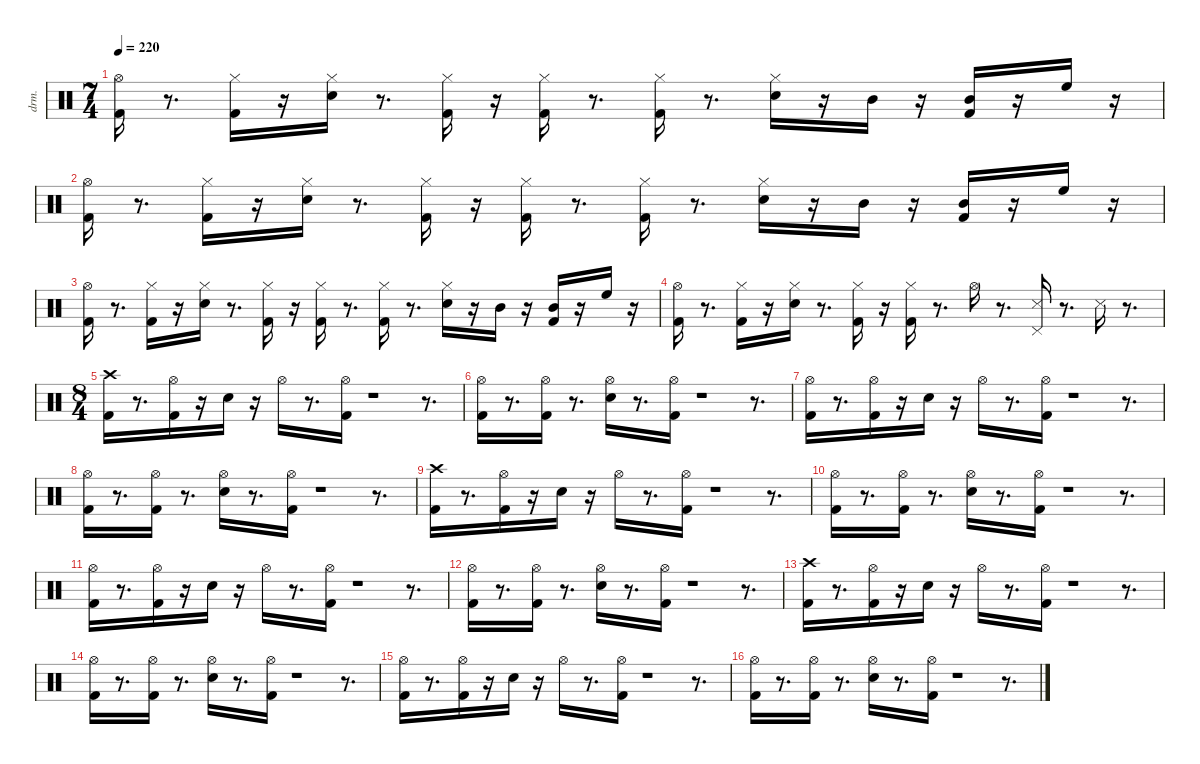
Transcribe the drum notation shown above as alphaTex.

\defaultSystemsLayout 4
\hideDynamics
\bracketExtendMode nobrackets
\otherSystemsTrackNameOrientation horizontal
\track ("EZdrummer 3" "drm.") {instrument percussion}
\staff {score}
\articulation defaults
\ts (7 4)
\tempo 220
\clef neutral
\ks c
("Kick (hit) 2" "Hi-Hat (open)"{acc #}).16{dy fff beam Down} r.8{d beam Down} ("Kick (hit) 2" "Hi-Hat (closed)"{acc #}).16{dy f beam Down} r.16{beam Down} ("Snare (hit) 2" "Hi-Hat (closed)"{acc #}).16{dy ff beam Down} r.8{d beam Down} ("Kick (hit) 2" "Hi-Hat (closed)"{acc #}).16{dy f beam Down} r.16{beam Down} ("Kick (hit) 2" "Hi-Hat (closed)"{acc #}).16{dy ff beam Down} r.8{d beam Down} ("Kick (hit) 2" "Hi-Hat (closed)"{acc #}).16{dy f beam Down} r.8{d beam Down} ("Snare (hit) 2" "Hi-Hat (closed)"{acc #}).16{dy fff beam Down} r.16{beam Down} "Mid Tom (hit)".16{dy f beam Down} r.16{beam Down} ("Kick (hit) 2" "Mid Tom (hit)").16{beam Up} r.16{beam Up} "High Floor Tom (hit)".16{beam Down} r.16{beam Down} |
("Kick (hit) 2" "Hi-Hat (open)"{acc #}).16{dy fff beam Down} r.8{d beam Down} ("Kick (hit) 2" "Hi-Hat (closed)"{acc #}).16{dy f beam Down} r.16{beam Down} ("Snare (hit) 2" "Hi-Hat (closed)"{acc #}).16{dy ff beam Down} r.8{d beam Down} ("Kick (hit) 2" "Hi-Hat (closed)"{acc #}).16{dy f beam Down} r.16{beam Down} ("Kick (hit) 2" "Hi-Hat (closed)"{acc #}).16{dy ff beam Down} r.8{d beam Down} ("Kick (hit) 2" "Hi-Hat (closed)"{acc #}).16{dy f beam Down} r.8{d beam Down} ("Snare (hit) 2" "Hi-Hat (closed)"{acc #}).16{dy fff beam Down} r.16{beam Down} "Mid Tom (hit)".16{dy f beam Down} r.16{beam Down} ("Kick (hit) 2" "Mid Tom (hit)").16{beam Up} r.16{beam Up} "High Floor Tom (hit)".16{beam Down} r.16{beam Down} |
("Kick (hit) 2" "Hi-Hat (open)"{acc #}).16{dy fff beam Down} r.8{d beam Down} ("Kick (hit) 2" "Hi-Hat (closed)"{acc #}).16{dy f beam Down} r.16{beam Down} ("Snare (hit) 2" "Hi-Hat (closed)"{acc #}).16{dy ff beam Down} r.8{d beam Down} ("Kick (hit) 2" "Hi-Hat (closed)"{acc #}).16{dy f beam Down} r.16{beam Down} ("Kick (hit) 2" "Hi-Hat (closed)"{acc #}).16{dy ff beam Down} r.8{d beam Down} ("Kick (hit) 2" "Hi-Hat (closed)"{acc #}).16{dy f beam Down} r.8{d beam Down} ("Snare (hit) 2" "Hi-Hat (closed)"{acc #}).16{dy fff beam Down} r.16{beam Down} "Mid Tom (hit)".16{dy f beam Down} r.16{beam Down} ("Kick (hit) 2" "Mid Tom (hit)").16{beam Up} r.16{beam Up} "High Floor Tom (hit)".16{beam Down} r.16{beam Down} |
("Kick (hit) 2" "Hi-Hat (open)"{acc #}).16{dy fff beam Down} r.8{d beam Down} ("Kick (hit) 2" "Hi-Hat (closed)"{acc #}).16{dy f beam Down} r.16{beam Down} ("Snare (hit) 2" "Hi-Hat (closed)"{acc #}).16{beam Down} r.8{d beam Down} ("Kick (hit) 2" "Hi-Hat (closed)"{acc #}).16{beam Down} r.16{beam Down} ("Kick (hit) 2" "Hi-Hat (closed)"{acc #}).16{dy fff beam Down} r.8{d beam Down} "Hi-Hat (open)"{acc #}.16{beam Down} r.8{d beam Down} ("Snare (side stick) 3"{acc #} "Pedal Hi-Hat (hit)"{acc #}).16{beam Up} r.8{d beam Up} "Snare (side stick) 3"{acc #}.16{beam Down} r.8{d beam Down} |
\ts (8 4)
\beaming (8 4 4 4 4)
("Kick (hit) 2" "Crash high (hit)"{acc #}).16{beam Down} r.8{d beam Down} ("Kick (hit) 2" "Hi-Hat (open)"{acc #}).16{dy ff beam Down} r.16{beam Down} "Snare (hit) 2".16{beam Down} r.16{beam Down} "Hi-Hat (open)"{acc #}.16{beam Down} r.8{d beam Down} ("Kick (hit) 2" "Hi-Hat (open)"{acc #}).16{beam Down} r.1{beam Down} r.8{d beam Down} |
("Kick (hit) 2" "Hi-Hat (open)"{acc #}).16{beam Down} r.8{d beam Down} ("Kick (hit) 2" "Hi-Hat (open)"{acc #}).16{beam Down} r.8{d beam Down} ("Snare (hit) 2" "Hi-Hat (open)"{acc #}).16{beam Down} r.8{d beam Down} ("Kick (hit) 2" "Hi-Hat (open)"{acc #}).16{dy mf beam Down} r.1{beam Down} r.8{d beam Down} |
("Kick (hit) 2" "Hi-Hat (open)"{acc #}).16{dy fff beam Down} r.8{d beam Down} ("Kick (hit) 2" "Hi-Hat (open)"{acc #}).16{dy ff beam Down} r.16{beam Down} "Snare (hit) 2".16{beam Down} r.16{beam Down} "Hi-Hat (open)"{acc #}.16{beam Down} r.8{d beam Down} ("Kick (hit) 2" "Hi-Hat (open)"{acc #}).16{beam Down} r.1{beam Down} r.8{d beam Down} |
("Kick (hit) 2" "Hi-Hat (open)"{acc #}).16{beam Down} r.8{d beam Down} ("Kick (hit) 2" "Hi-Hat (open)"{acc #}).16{beam Down} r.8{d beam Down} ("Snare (hit) 2" "Hi-Hat (open)"{acc #}).16{beam Down} r.8{d beam Down} ("Kick (hit) 2" "Hi-Hat (open)"{acc #}).16{dy mf beam Down} r.1{beam Down} r.8{d beam Down} |
("Kick (hit) 2" "Crash high (hit)"{acc #}).16{dy fff beam Down} r.8{d beam Down} ("Kick (hit) 2" "Hi-Hat (open)"{acc #}).16{dy ff beam Down} r.16{beam Down} "Snare (hit) 2".16{beam Down} r.16{beam Down} "Hi-Hat (open)"{acc #}.16{beam Down} r.8{d beam Down} ("Kick (hit) 2" "Hi-Hat (open)"{acc #}).16{beam Down} r.1{beam Down} r.8{d beam Down} |
("Kick (hit) 2" "Hi-Hat (open)"{acc #}).16{beam Down} r.8{d beam Down} ("Kick (hit) 2" "Hi-Hat (open)"{acc #}).16{beam Down} r.8{d beam Down} ("Snare (hit) 2" "Hi-Hat (open)"{acc #}).16{beam Down} r.8{d beam Down} ("Kick (hit) 2" "Hi-Hat (open)"{acc #}).16{dy mf beam Down} r.1{beam Down} r.8{d beam Down} |
("Kick (hit) 2" "Hi-Hat (open)"{acc #}).16{dy fff beam Down} r.8{d beam Down} ("Kick (hit) 2" "Hi-Hat (open)"{acc #}).16{dy ff beam Down} r.16{beam Down} "Snare (hit) 2".16{beam Down} r.16{beam Down} "Hi-Hat (open)"{acc #}.16{beam Down} r.8{d beam Down} ("Kick (hit) 2" "Hi-Hat (open)"{acc #}).16{beam Down} r.1{beam Down} r.8{d beam Down} |
("Kick (hit) 2" "Hi-Hat (open)"{acc #}).16{beam Down} r.8{d beam Down} ("Kick (hit) 2" "Hi-Hat (open)"{acc #}).16{beam Down} r.8{d beam Down} ("Snare (hit) 2" "Hi-Hat (open)"{acc #}).16{beam Down} r.8{d beam Down} ("Kick (hit) 2" "Hi-Hat (open)"{acc #}).16{dy mf beam Down} r.1{beam Down} r.8{d beam Down} |
("Kick (hit) 2" "Crash high (hit)"{acc #}).16{dy fff beam Down} r.8{d beam Down} ("Kick (hit) 2" "Hi-Hat (open)"{acc #}).16{dy ff beam Down} r.16{beam Down} "Snare (hit) 2".16{beam Down} r.16{beam Down} "Hi-Hat (open)"{acc #}.16{beam Down} r.8{d beam Down} ("Kick (hit) 2" "Hi-Hat (open)"{acc #}).16{beam Down} r.1{beam Down} r.8{d beam Down} |
("Kick (hit) 2" "Hi-Hat (open)"{acc #}).16{beam Down} r.8{d beam Down} ("Kick (hit) 2" "Hi-Hat (open)"{acc #}).16{beam Down} r.8{d beam Down} ("Snare (hit) 2" "Hi-Hat (open)"{acc #}).16{beam Down} r.8{d beam Down} ("Kick (hit) 2" "Hi-Hat (open)"{acc #}).16{dy mf beam Down} r.1{beam Down} r.8{d beam Down} |
("Kick (hit) 2" "Hi-Hat (open)"{acc #}).16{dy fff beam Down} r.8{d beam Down} ("Kick (hit) 2" "Hi-Hat (open)"{acc #}).16{dy ff beam Down} r.16{beam Down} "Snare (hit) 2".16{beam Down} r.16{beam Down} "Hi-Hat (open)"{acc #}.16{beam Down} r.8{d beam Down} ("Kick (hit) 2" "Hi-Hat (open)"{acc #}).16{beam Down} r.1{beam Down} r.8{d beam Down} |
("Kick (hit) 2" "Hi-Hat (open)"{acc #}).16{beam Down} r.8{d beam Down} ("Kick (hit) 2" "Hi-Hat (open)"{acc #}).16{beam Down} r.8{d beam Down} ("Snare (hit) 2" "Hi-Hat (open)"{acc #}).16{beam Down} r.8{d beam Down} ("Kick (hit) 2" "Hi-Hat (open)"{acc #}).16{dy mf beam Down} r.1{beam Down} r.8{d beam Down}
